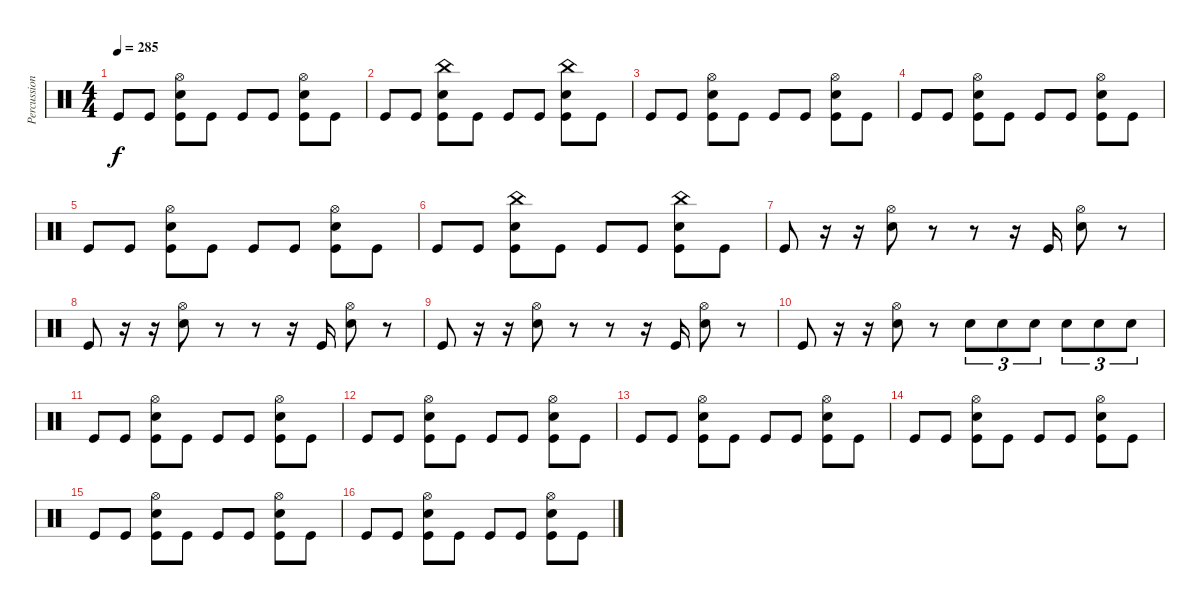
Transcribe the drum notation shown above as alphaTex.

\track ("Percussion" "Percussion") {instrument percussion}
\staff {score}
\articulation defaults
\ts (4 4)
\tempo 285
\clef neutral
\ks c "Kick (hit)".8{dy f} "Kick (hit)".8
("Snare (hit) 2" "Hi-Hat (open)" "Kick (hit)").8 "Kick (hit)".8 "Kick (hit)".8 "Kick (hit)".8 ("Snare (hit) 2" "Hi-Hat (open)" "Kick (hit)").8 "Kick (hit)".8 |
"Kick (hit)".8 "Kick (hit)".8 ("Snare (hit) 2" "China (hit)" "Kick (hit)").8 "Kick (hit)".8 "Kick (hit)".8 "Kick (hit)".8 ("Snare (hit) 2" "China (hit)" "Kick (hit)").8 "Kick (hit)".8 |
"Kick (hit)".8 "Kick (hit)".8 ("Snare (hit) 2" "Hi-Hat (open)" "Kick (hit)").8 "Kick (hit)".8 "Kick (hit)".8 "Kick (hit)".8 ("Snare (hit) 2" "Hi-Hat (open)" "Kick (hit)").8 "Kick (hit)".8 |
"Kick (hit)".8 "Kick (hit)".8 ("Snare (hit) 2" "Hi-Hat (open)" "Kick (hit)").8 "Kick (hit)".8 "Kick (hit)".8 "Kick (hit)".8 ("Snare (hit) 2" "Hi-Hat (open)" "Kick (hit)").8 "Kick (hit)".8 |
"Kick (hit)".8 "Kick (hit)".8 ("Snare (hit) 2" "Hi-Hat (open)" "Kick (hit)").8 "Kick (hit)".8 "Kick (hit)".8 "Kick (hit)".8 ("Snare (hit) 2" "Hi-Hat (open)" "Kick (hit)").8 "Kick (hit)".8 |
"Kick (hit)".8 "Kick (hit)".8 ("Snare (hit) 2" "China (hit)" "Kick (hit)").8 "Kick (hit)".8 "Kick (hit)".8 "Kick (hit)".8 ("Snare (hit) 2" "China (hit)" "Kick (hit)").8 "Kick (hit)".8 |
"Kick (hit)".8 r.16 r.16 ("Snare (hit) 2" "Hi-Hat (open)").8 r.8 r.8 r.16 "Kick (hit)".16 ("Snare (hit) 2" "Hi-Hat (open)").8 r.8 |
"Kick (hit)".8 r.16 r.16 ("Snare (hit) 2" "Hi-Hat (open)").8 r.8 r.8 r.16 "Kick (hit)".16 ("Snare (hit) 2" "Hi-Hat (open)").8 r.8 |
"Kick (hit)".8 r.16 r.16 ("Snare (hit) 2" "Hi-Hat (open)").8 r.8 r.8 r.16 "Kick (hit)".16 ("Snare (hit) 2" "Hi-Hat (open)").8 r.8 |
"Kick (hit)".8 r.16 r.16 ("Snare (hit) 2" "Hi-Hat (open)").8 r.8 "Snare (hit) 2".8{tu (3 2)} "Snare (hit) 2".8{tu (3 2)} "Snare (hit) 2".8{tu (3 2)} "Snare (hit) 2".8{tu (3 2)} "Snare (hit) 2".8{tu (3 2)} "Snare (hit) 2".8{tu (3 2)} |
"Kick (hit)".8 "Kick (hit)".8 ("Snare (hit) 2" "Hi-Hat (open)" "Kick (hit)").8 "Kick (hit)".8 "Kick (hit)".8 "Kick (hit)".8 ("Snare (hit) 2" "Hi-Hat (open)" "Kick (hit)").8 "Kick (hit)".8 |
"Kick (hit)".8 "Kick (hit)".8 ("Snare (hit) 2" "Hi-Hat (open)" "Kick (hit)").8 "Kick (hit)".8 "Kick (hit)".8 "Kick (hit)".8 ("Snare (hit) 2" "Hi-Hat (open)" "Kick (hit)").8 "Kick (hit)".8 |
"Kick (hit)".8 "Kick (hit)".8 ("Snare (hit) 2" "Hi-Hat (open)" "Kick (hit)").8 "Kick (hit)".8 "Kick (hit)".8 "Kick (hit)".8 ("Snare (hit) 2" "Hi-Hat (open)" "Kick (hit)").8 "Kick (hit)".8 |
"Kick (hit)".8 "Kick (hit)".8 ("Snare (hit) 2" "Hi-Hat (open)" "Kick (hit)").8 "Kick (hit)".8 "Kick (hit)".8 "Kick (hit)".8 ("Snare (hit) 2" "Hi-Hat (open)" "Kick (hit)").8 "Kick (hit)".8 |
"Kick (hit)".8 "Kick (hit)".8 ("Snare (hit) 2" "Hi-Hat (open)" "Kick (hit)").8 "Kick (hit)".8 "Kick (hit)".8 "Kick (hit)".8 ("Snare (hit) 2" "Hi-Hat (open)" "Kick (hit)").8 "Kick (hit)".8 |
"Kick (hit)".8 "Kick (hit)".8 ("Snare (hit) 2" "Hi-Hat (open)" "Kick (hit)").8 "Kick (hit)".8 "Kick (hit)".8 "Kick (hit)".8 ("Snare (hit) 2" "Hi-Hat (open)" "Kick (hit)").8 "Kick (hit)".8
